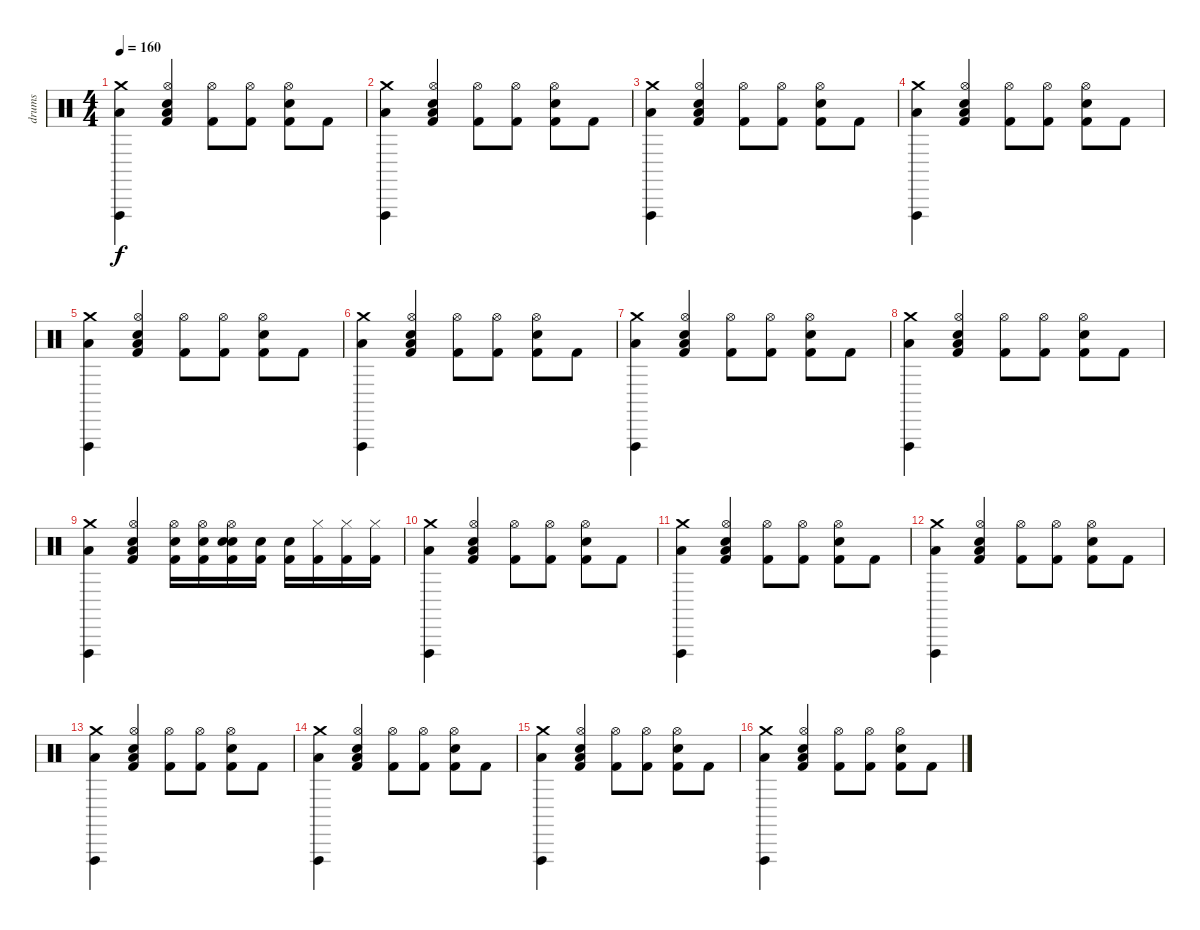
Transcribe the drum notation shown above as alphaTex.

\track ("drums" "drums") {instrument percussion}
\staff {score}
\articulation defaults
\ts (4 4)
\tempo 160
\clef neutral
\ks c
("Crash medium (hit)" "Vibraslap (hit)" "Low Floor Tom (hit)").4{dy f} ("Hi-Hat (open)" "Electric Snare (hit)" "Low Floor Tom (hit)" "Kick (hit) 2").4 ("Hi-Hat (open)" "Kick (hit) 2").8 ("Hi-Hat (open)" "Kick (hit) 2").8 ("Hi-Hat (open)" "Electric Snare (hit)" "Kick (hit) 2").8 "Kick (hit) 2".8 |
("Crash medium (hit)" "Vibraslap (hit)" "Low Floor Tom (hit)").4 ("Hi-Hat (open)" "Electric Snare (hit)" "Low Floor Tom (hit)" "Kick (hit) 2").4 ("Hi-Hat (open)" "Kick (hit) 2").8 ("Hi-Hat (open)" "Kick (hit) 2").8 ("Hi-Hat (open)" "Electric Snare (hit)" "Kick (hit) 2").8 "Kick (hit) 2".8 |
("Crash medium (hit)" "Vibraslap (hit)" "Low Floor Tom (hit)").4 ("Hi-Hat (open)" "Electric Snare (hit)" "Low Floor Tom (hit)" "Kick (hit) 2").4 ("Hi-Hat (open)" "Kick (hit) 2").8 ("Hi-Hat (open)" "Kick (hit) 2").8 ("Hi-Hat (open)" "Electric Snare (hit)" "Kick (hit) 2").8 "Kick (hit) 2".8 |
("Crash medium (hit)" "Vibraslap (hit)" "Low Floor Tom (hit)").4 ("Hi-Hat (open)" "Electric Snare (hit)" "Low Floor Tom (hit)" "Kick (hit) 2").4 ("Hi-Hat (open)" "Kick (hit) 2").8 ("Hi-Hat (open)" "Kick (hit) 2").8 ("Hi-Hat (open)" "Electric Snare (hit)" "Kick (hit) 2").8 "Kick (hit) 2".8 |
("Crash medium (hit)" "Vibraslap (hit)" "Low Floor Tom (hit)").4 ("Hi-Hat (open)" "Electric Snare (hit)" "Low Floor Tom (hit)" "Kick (hit) 2").4 ("Hi-Hat (open)" "Kick (hit) 2").8 ("Hi-Hat (open)" "Kick (hit) 2").8 ("Hi-Hat (open)" "Electric Snare (hit)" "Kick (hit) 2").8 "Kick (hit) 2".8 |
("Crash medium (hit)" "Vibraslap (hit)" "Low Floor Tom (hit)").4 ("Hi-Hat (open)" "Electric Snare (hit)" "Low Floor Tom (hit)" "Kick (hit) 2").4 ("Hi-Hat (open)" "Kick (hit) 2").8 ("Hi-Hat (open)" "Kick (hit) 2").8 ("Hi-Hat (open)" "Electric Snare (hit)" "Kick (hit) 2").8 "Kick (hit) 2".8 |
("Crash medium (hit)" "Vibraslap (hit)" "Low Floor Tom (hit)").4 ("Hi-Hat (open)" "Electric Snare (hit)" "Low Floor Tom (hit)" "Kick (hit) 2").4 ("Hi-Hat (open)" "Kick (hit) 2").8 ("Hi-Hat (open)" "Kick (hit) 2").8 ("Hi-Hat (open)" "Electric Snare (hit)" "Kick (hit) 2").8 "Kick (hit) 2".8 |
("Crash medium (hit)" "Vibraslap (hit)" "Low Floor Tom (hit)").4 ("Hi-Hat (open)" "Electric Snare (hit)" "Low Floor Tom (hit)" "Kick (hit) 2").4 ("Hi-Hat (open)" "Kick (hit) 2").8 ("Hi-Hat (open)" "Kick (hit) 2").8 ("Hi-Hat (open)" "Electric Snare (hit)" "Kick (hit) 2").8 "Kick (hit) 2".8 |
("Crash medium (hit)" "Vibraslap (hit)" "Low Floor Tom (hit)").4 ("Hi-Hat (open)" "Electric Snare (hit)" "Low Floor Tom (hit)" "Kick (hit) 2").4 ("Hi-Hat (open)" "Snare (hit) 2" "Kick (hit) 2").16 ("Hi-Hat (open)" "Snare (hit) 2" "Kick (hit) 2").16 ("Hi-Hat (open)" "Electric Snare (hit)" "Snare (hit) 2" "Kick (hit) 2").16 ("Snare (hit) 2" "Kick (hit) 2").16 ("Snare (hit)" "Kick (hit) 2").16 ("Hi-Hat (closed)" "Kick (hit) 2").16 ("Hi-Hat (closed)" "Kick (hit) 2").16 ("Hi-Hat (closed)" "Kick (hit) 2").16 |
("Crash medium (hit)" "Vibraslap (hit)" "Low Floor Tom (hit)").4 ("Hi-Hat (open)" "Electric Snare (hit)" "Low Floor Tom (hit)" "Kick (hit) 2").4 ("Hi-Hat (open)" "Kick (hit) 2").8 ("Hi-Hat (open)" "Kick (hit) 2").8 ("Hi-Hat (open)" "Electric Snare (hit)" "Kick (hit) 2").8 "Kick (hit) 2".8 |
("Crash medium (hit)" "Vibraslap (hit)" "Low Floor Tom (hit)").4 ("Hi-Hat (open)" "Electric Snare (hit)" "Low Floor Tom (hit)" "Kick (hit) 2").4 ("Hi-Hat (open)" "Kick (hit) 2").8 ("Hi-Hat (open)" "Kick (hit) 2").8 ("Hi-Hat (open)" "Electric Snare (hit)" "Kick (hit) 2").8 "Kick (hit) 2".8 |
("Crash medium (hit)" "Vibraslap (hit)" "Low Floor Tom (hit)").4 ("Hi-Hat (open)" "Electric Snare (hit)" "Low Floor Tom (hit)" "Kick (hit) 2").4 ("Hi-Hat (open)" "Kick (hit) 2").8 ("Hi-Hat (open)" "Kick (hit) 2").8 ("Hi-Hat (open)" "Electric Snare (hit)" "Kick (hit) 2").8 "Kick (hit) 2".8 |
("Crash medium (hit)" "Vibraslap (hit)" "Low Floor Tom (hit)").4 ("Hi-Hat (open)" "Electric Snare (hit)" "Low Floor Tom (hit)" "Kick (hit) 2").4 ("Hi-Hat (open)" "Kick (hit) 2").8 ("Hi-Hat (open)" "Kick (hit) 2").8 ("Hi-Hat (open)" "Electric Snare (hit)" "Kick (hit) 2").8 "Kick (hit) 2".8 |
("Crash medium (hit)" "Vibraslap (hit)" "Low Floor Tom (hit)").4 ("Hi-Hat (open)" "Electric Snare (hit)" "Low Floor Tom (hit)" "Kick (hit) 2").4 ("Hi-Hat (open)" "Kick (hit) 2").8 ("Hi-Hat (open)" "Kick (hit) 2").8 ("Hi-Hat (open)" "Electric Snare (hit)" "Kick (hit) 2").8 "Kick (hit) 2".8 |
("Crash medium (hit)" "Vibraslap (hit)" "Low Floor Tom (hit)").4 ("Hi-Hat (open)" "Electric Snare (hit)" "Low Floor Tom (hit)" "Kick (hit) 2").4 ("Hi-Hat (open)" "Kick (hit) 2").8 ("Hi-Hat (open)" "Kick (hit) 2").8 ("Hi-Hat (open)" "Electric Snare (hit)" "Kick (hit) 2").8 "Kick (hit) 2".8 |
("Crash medium (hit)" "Vibraslap (hit)" "Low Floor Tom (hit)").4 ("Hi-Hat (open)" "Electric Snare (hit)" "Low Floor Tom (hit)" "Kick (hit) 2").4 ("Hi-Hat (open)" "Kick (hit) 2").8 ("Hi-Hat (open)" "Kick (hit) 2").8 ("Hi-Hat (open)" "Electric Snare (hit)" "Kick (hit) 2").8 "Kick (hit) 2".8
